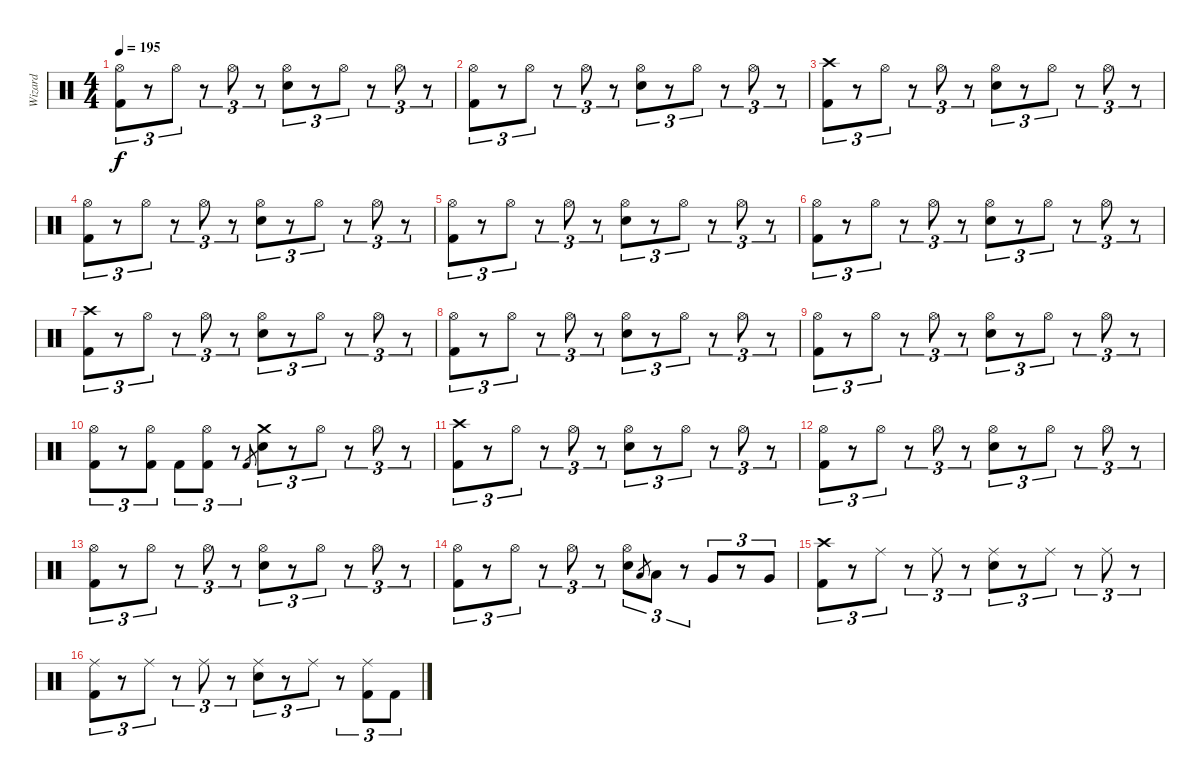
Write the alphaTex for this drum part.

\track ("Wizard" "Wizard") {instrument percussion}
\staff {score}
\articulation defaults
\ts (4 4)
\tempo 195
\clef neutral
\ks c
("Hi-Hat (open)" "Kick (hit) 2").8{tu (3 2) dy f} r.8{tu (3 2)} "Hi-Hat (open)".8{tu (3 2)} r.8{tu (3 2)} "Hi-Hat (open)".8{tu (3 2)} r.8{tu (3 2)} ("Hi-Hat (open)" "Snare (hit) 2").8{tu (3 2)} r.8{tu (3 2)} "Hi-Hat (open)".8{tu (3 2)} r.8{tu (3 2)} "Hi-Hat (open)".8{tu (3 2)} r.8{tu (3 2)} |
("Hi-Hat (open)" "Kick (hit) 2").8{tu (3 2)} r.8{tu (3 2)} "Hi-Hat (open)".8{tu (3 2)} r.8{tu (3 2)} "Hi-Hat (open)".8{tu (3 2)} r.8{tu (3 2)} ("Hi-Hat (open)" "Snare (hit) 2").8{tu (3 2)} r.8{tu (3 2)} "Hi-Hat (open)".8{tu (3 2)} r.8{tu (3 2)} "Hi-Hat (open)".8{tu (3 2)} r.8{tu (3 2)} |
("Crash high (hit)" "Kick (hit) 2").8{tu (3 2)} r.8{tu (3 2)} "Hi-Hat (open)".8{tu (3 2)} r.8{tu (3 2)} "Hi-Hat (open)".8{tu (3 2)} r.8{tu (3 2)} ("Hi-Hat (open)" "Snare (hit) 2").8{tu (3 2)} r.8{tu (3 2)} "Hi-Hat (open)".8{tu (3 2)} r.8{tu (3 2)} "Hi-Hat (open)".8{tu (3 2)} r.8{tu (3 2)} |
("Hi-Hat (open)" "Kick (hit) 2").8{tu (3 2)} r.8{tu (3 2)} "Hi-Hat (open)".8{tu (3 2)} r.8{tu (3 2)} "Hi-Hat (open)".8{tu (3 2)} r.8{tu (3 2)} ("Hi-Hat (open)" "Snare (hit) 2").8{tu (3 2)} r.8{tu (3 2)} "Hi-Hat (open)".8{tu (3 2)} r.8{tu (3 2)} "Hi-Hat (open)".8{tu (3 2)} r.8{tu (3 2)} |
("Hi-Hat (open)" "Kick (hit) 2").8{tu (3 2)} r.8{tu (3 2)} "Hi-Hat (open)".8{tu (3 2)} r.8{tu (3 2)} "Hi-Hat (open)".8{tu (3 2)} r.8{tu (3 2)} ("Hi-Hat (open)" "Snare (hit) 2").8{tu (3 2)} r.8{tu (3 2)} "Hi-Hat (open)".8{tu (3 2)} r.8{tu (3 2)} "Hi-Hat (open)".8{tu (3 2)} r.8{tu (3 2)} |
("Hi-Hat (open)" "Kick (hit) 2").8{tu (3 2)} r.8{tu (3 2)} "Hi-Hat (open)".8{tu (3 2)} r.8{tu (3 2)} "Hi-Hat (open)".8{tu (3 2)} r.8{tu (3 2)} ("Hi-Hat (open)" "Snare (hit) 2").8{tu (3 2)} r.8{tu (3 2)} "Hi-Hat (open)".8{tu (3 2)} r.8{tu (3 2)} "Hi-Hat (open)".8{tu (3 2)} r.8{tu (3 2)} |
("Crash high (hit)" "Kick (hit) 2").8{tu (3 2)} r.8{tu (3 2)} "Hi-Hat (open)".8{tu (3 2)} r.8{tu (3 2)} "Hi-Hat (open)".8{tu (3 2)} r.8{tu (3 2)} ("Hi-Hat (open)" "Snare (hit) 2").8{tu (3 2)} r.8{tu (3 2)} "Hi-Hat (open)".8{tu (3 2)} r.8{tu (3 2)} "Hi-Hat (open)".8{tu (3 2)} r.8{tu (3 2)} |
("Hi-Hat (open)" "Kick (hit) 2").8{tu (3 2)} r.8{tu (3 2)} "Hi-Hat (open)".8{tu (3 2)} r.8{tu (3 2)} "Hi-Hat (open)".8{tu (3 2)} r.8{tu (3 2)} ("Hi-Hat (open)" "Snare (hit) 2").8{tu (3 2)} r.8{tu (3 2)} "Hi-Hat (open)".8{tu (3 2)} r.8{tu (3 2)} "Hi-Hat (open)".8{tu (3 2)} r.8{tu (3 2)} |
("Hi-Hat (open)" "Kick (hit) 2").8{tu (3 2)} r.8{tu (3 2)} "Hi-Hat (open)".8{tu (3 2)} r.8{tu (3 2)} "Hi-Hat (open)".8{tu (3 2)} r.8{tu (3 2)} ("Hi-Hat (open)" "Snare (hit) 2").8{tu (3 2)} r.8{tu (3 2)} "Hi-Hat (open)".8{tu (3 2)} r.8{tu (3 2)} "Hi-Hat (open)".8{tu (3 2)} r.8{tu (3 2)} |
("Hi-Hat (open)" "Kick (hit) 2").8{tu (3 2)} r.8{tu (3 2)} ("Hi-Hat (open)" "Kick (hit) 2").8{tu (3 2)} "Kick (hit) 2".8{tu (3 2)} ("Hi-Hat (open)" "Kick (hit) 2").8{tu (3 2)} r.8{tu (3 2)} "Kick (hit) 2".8{gr} ("Crash medium (hit)" "Snare (hit) 2").8{tu (3 2)} r.8{tu (3 2)} "Hi-Hat (open)".8{tu (3 2)} r.8{tu (3 2)} "Hi-Hat (open)".8{tu (3 2)} r.8{tu (3 2)} |
("Crash high (hit)" "Kick (hit) 2").8{tu (3 2)} r.8{tu (3 2)} "Hi-Hat (open)".8{tu (3 2)} r.8{tu (3 2)} "Hi-Hat (open)".8{tu (3 2)} r.8{tu (3 2)} ("Hi-Hat (open)" "Snare (hit) 2").8{tu (3 2)} r.8{tu (3 2)} "Hi-Hat (open)".8{tu (3 2)} r.8{tu (3 2)} "Hi-Hat (open)".8{tu (3 2)} r.8{tu (3 2)} |
("Hi-Hat (open)" "Kick (hit) 2").8{tu (3 2)} r.8{tu (3 2)} "Hi-Hat (open)".8{tu (3 2)} r.8{tu (3 2)} "Hi-Hat (open)".8{tu (3 2)} r.8{tu (3 2)} ("Hi-Hat (open)" "Snare (hit) 2").8{tu (3 2)} r.8{tu (3 2)} "Hi-Hat (open)".8{tu (3 2)} r.8{tu (3 2)} "Hi-Hat (open)".8{tu (3 2)} r.8{tu (3 2)} |
("Hi-Hat (open)" "Kick (hit) 2").8{tu (3 2)} r.8{tu (3 2)} "Hi-Hat (open)".8{tu (3 2)} r.8{tu (3 2)} "Hi-Hat (open)".8{tu (3 2)} r.8{tu (3 2)} ("Hi-Hat (open)" "Snare (hit) 2").8{tu (3 2)} r.8{tu (3 2)} "Hi-Hat (open)".8{tu (3 2)} r.8{tu (3 2)} "Hi-Hat (open)".8{tu (3 2)} r.8{tu (3 2)} |
("Hi-Hat (open)" "Kick (hit) 2").8{tu (3 2)} r.8{tu (3 2)} "Hi-Hat (open)".8{tu (3 2)} r.8{tu (3 2)} "Hi-Hat (open)".8{tu (3 2)} r.8{tu (3 2)} ("Hi-Hat (open)" "Snare (hit) 2").8{tu (3 2)} "Low Tom (hit)".8{gr} "Low Tom (hit)".8{tu (3 2)} r.8{tu (3 2)} "Very Low Tom (hit)".8{tu (3 2)} r.8{tu (3 2)} "Very Low Tom (hit)".8{tu (3 2)} |
("Crash high (hit)" "Kick (hit) 2").8{tu (3 2)} r.8{tu (3 2)} "Ride (middle)".8{tu (3 2)} r.8{tu (3 2)} "Ride (middle)".8{tu (3 2)} r.8{tu (3 2)} ("Ride (middle)" "Snare (hit) 2").8{tu (3 2)} r.8{tu (3 2)} "Ride (middle)".8{tu (3 2)} r.8{tu (3 2)} "Ride (middle)".8{tu (3 2)} r.8{tu (3 2)} |
("Ride (middle)" "Kick (hit) 2").8{tu (3 2)} r.8{tu (3 2)} "Ride (middle)".8{tu (3 2)} r.8{tu (3 2)} "Ride (middle)".8{tu (3 2)} r.8{tu (3 2)} ("Ride (middle)" "Snare (hit) 2").8{tu (3 2)} r.8{tu (3 2)} "Ride (middle)".8{tu (3 2)} r.8{tu (3 2)} ("Ride (middle)" "Kick (hit) 2").8{tu (3 2)} "Kick (hit) 2".8{tu (3 2)}
